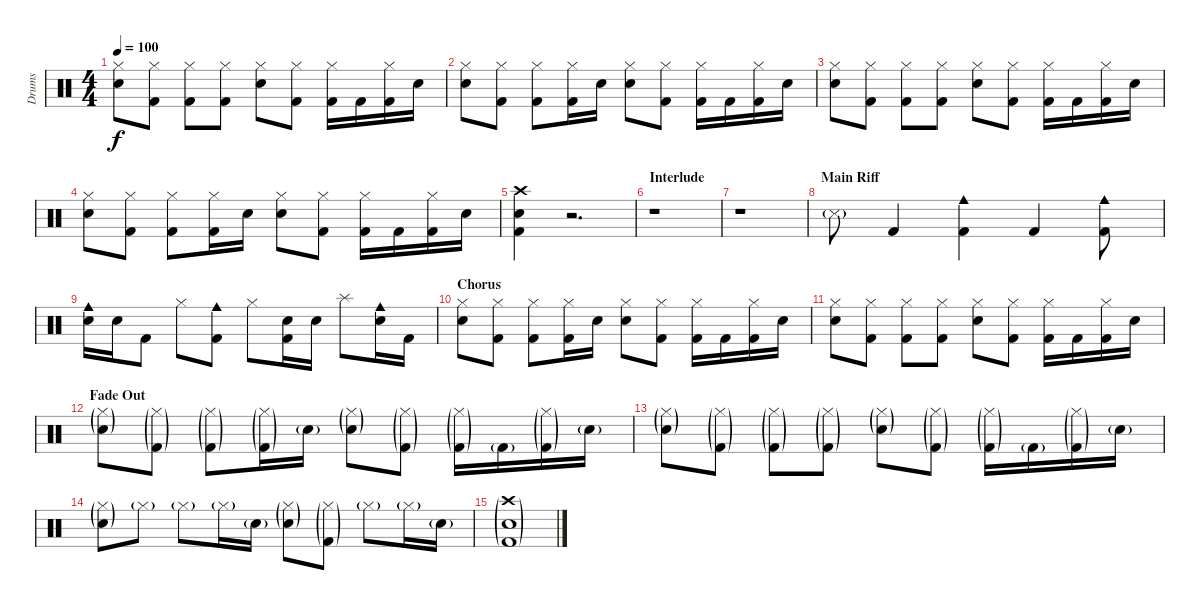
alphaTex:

\track ("Drums" "Drums") {instrument percussion}
\staff {score}
\articulation defaults
\ts (4 4)
\tempo 100
\clef neutral
\ks c
("Hi-Hat (closed)" "Snare (hit) 2").8{dy f} ("Hi-Hat (closed)" "Kick (hit) 2").8 ("Hi-Hat (closed)" "Kick (hit) 2").8 ("Hi-Hat (closed)" "Kick (hit) 2").8 ("Hi-Hat (closed)" "Snare (hit) 2").8 ("Hi-Hat (closed)" "Kick (hit) 2").8 ("Hi-Hat (closed)" "Kick (hit) 2").16 "Kick (hit) 2".16 ("Hi-Hat (closed)" "Kick (hit) 2").16 "Snare (hit) 2".16 |
("Hi-Hat (closed)" "Snare (hit) 2").8 ("Hi-Hat (closed)" "Kick (hit) 2").8 ("Hi-Hat (closed)" "Kick (hit) 2").8 ("Hi-Hat (closed)" "Kick (hit) 2").16 "Snare (hit) 2".16 ("Hi-Hat (closed)" "Snare (hit) 2").8 ("Hi-Hat (closed)" "Kick (hit) 2").8 ("Hi-Hat (closed)" "Kick (hit) 2").16 "Kick (hit) 2".16 ("Hi-Hat (closed)" "Kick (hit) 2").16 "Snare (hit) 2".16 |
("Hi-Hat (closed)" "Snare (hit) 2").8 ("Hi-Hat (closed)" "Kick (hit) 2").8 ("Hi-Hat (closed)" "Kick (hit) 2").8 ("Hi-Hat (closed)" "Kick (hit) 2").8 ("Hi-Hat (closed)" "Snare (hit) 2").8 ("Hi-Hat (closed)" "Kick (hit) 2").8 ("Hi-Hat (closed)" "Kick (hit) 2").16 "Kick (hit) 2".16 ("Hi-Hat (closed)" "Kick (hit) 2").16 "Snare (hit) 2".16 |
("Hi-Hat (closed)" "Snare (hit) 2").8 ("Hi-Hat (closed)" "Kick (hit) 2").8 ("Hi-Hat (closed)" "Kick (hit) 2").8 ("Hi-Hat (closed)" "Kick (hit) 2").16 "Snare (hit) 2".16 ("Hi-Hat (closed)" "Snare (hit) 2").8 ("Hi-Hat (closed)" "Kick (hit) 2").8 ("Hi-Hat (closed)" "Kick (hit) 2").16 "Kick (hit) 2".16 ("Hi-Hat (closed)" "Kick (hit) 2").16 "Snare (hit) 2".16 |
("Crash high (hit)" "Snare (hit) 2" "Kick (hit) 2").4 r.2{d} |
\section ("" "Interlude")
r.1 |
r.1 |
\section ("" "Main Riff")
"Snare (side stick) 3"{g}.8 "Kick (hit) 2".4 ("Cowbell medium (hit)" "Kick (hit) 2").4 "Kick (hit) 2".4 ("Cowbell medium (hit)" "Kick (hit) 2").8 |
("Cowbell medium (hit)" "Snare (hit) 2").16 "Snare (hit) 2".16 "Kick (hit) 2".8 "Hi-Hat (closed)".8 ("Cowbell medium (hit)" "Kick (hit) 2").8 "Hi-Hat (closed)".8 ("Snare (hit) 2" "Kick (hit) 2").16 "Snare (hit) 2".16 "Splash (hit)".8 ("Cowbell medium (hit)" "Snare (hit) 2").16 "Kick (hit) 2".16 |
\section ("" "Chorus")
("Hi-Hat (closed)" "Snare (hit) 2").8 ("Hi-Hat (closed)" "Kick (hit) 2").8 ("Hi-Hat (closed)" "Kick (hit) 2").8 ("Hi-Hat (closed)" "Kick (hit) 2").16 "Snare (hit) 2".16 ("Hi-Hat (closed)" "Snare (hit) 2").8 ("Hi-Hat (closed)" "Kick (hit) 2").8 ("Hi-Hat (closed)" "Kick (hit) 2").16 "Kick (hit) 2".16 ("Hi-Hat (closed)" "Kick (hit) 2").16 "Snare (hit) 2".16 |
("Hi-Hat (closed)" "Snare (hit) 2").8 ("Hi-Hat (closed)" "Kick (hit) 2").8 ("Hi-Hat (closed)" "Kick (hit) 2").8 ("Hi-Hat (closed)" "Kick (hit) 2").8 ("Hi-Hat (closed)" "Snare (hit) 2").8 ("Hi-Hat (closed)" "Kick (hit) 2").8 ("Hi-Hat (closed)" "Kick (hit) 2").16 "Kick (hit) 2".16 ("Hi-Hat (closed)" "Kick (hit) 2").16 "Snare (hit) 2".16 |
\section ("" "Fade Out")
("Hi-Hat (closed)"{g} "Snare (hit) 2"{g}).8 ("Hi-Hat (closed)"{g} "Kick (hit) 2"{g}).8 ("Hi-Hat (closed)"{g} "Kick (hit) 2"{g}).8 ("Hi-Hat (closed)"{g} "Kick (hit) 2"{g}).16 "Snare (hit) 2"{g}.16 ("Hi-Hat (closed)"{g} "Snare (hit) 2"{g}).8 ("Hi-Hat (closed)"{g} "Kick (hit) 2"{g}).8 ("Hi-Hat (closed)"{g} "Kick (hit) 2"{g}).16 "Kick (hit) 2"{g}.16 ("Hi-Hat (closed)"{g} "Kick (hit) 2"{g}).16 "Snare (hit) 2"{g}.16 |
("Hi-Hat (closed)"{g} "Snare (hit) 2"{g}).8 ("Hi-Hat (closed)"{g} "Kick (hit) 2"{g}).8 ("Hi-Hat (closed)"{g} "Kick (hit) 2"{g}).8 ("Hi-Hat (closed)"{g} "Kick (hit) 2"{g}).8 ("Hi-Hat (closed)"{g} "Snare (hit) 2"{g}).8 ("Hi-Hat (closed)"{g} "Kick (hit) 2"{g}).8 ("Hi-Hat (closed)"{g} "Kick (hit) 2"{g}).16 "Kick (hit) 2"{g}.16 ("Hi-Hat (closed)"{g} "Kick (hit) 2"{g}).16 "Snare (hit) 2"{g}.16 |
("Hi-Hat (closed)"{g} "Snare (hit) 2"{g}).8 "Hi-Hat (closed)"{g}.8 "Hi-Hat (closed)"{g}.8 "Hi-Hat (closed)"{g}.16 "Snare (hit) 2"{g}.16 ("Hi-Hat (closed)"{g} "Snare (hit) 2"{g}).8 ("Hi-Hat (closed)"{g} "Kick (hit) 2"{g}).8 "Hi-Hat (closed)"{g}.8 "Hi-Hat (closed)"{g}.16 "Snare (hit) 2"{g}.16 |
("Crash high (hit)"{g} "Snare (hit) 2"{g} "Kick (hit) 2"{g}).1
